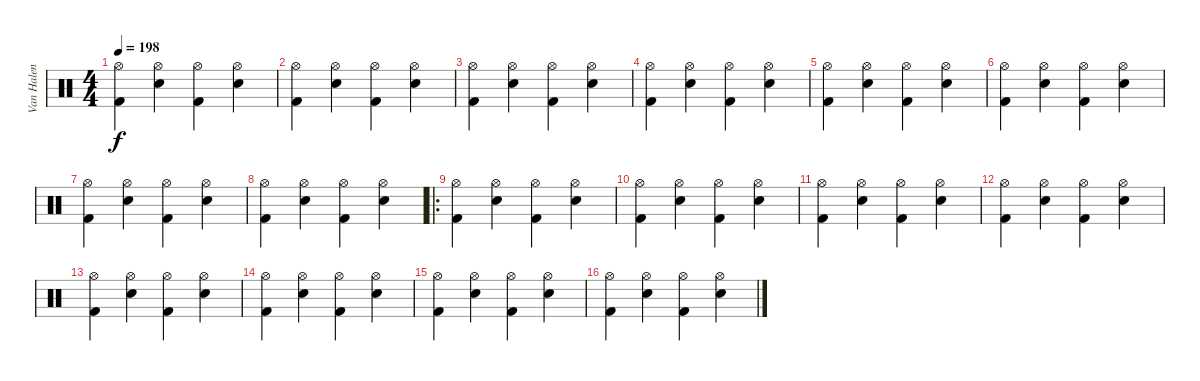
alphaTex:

\track ("Van Halen" "Van Halen") {instrument percussion}
\staff {score}
\articulation defaults
\ts (4 4)
\tempo 198
\clef neutral
\ks c
("Kick (hit) 2" "Hi-Hat (open)").4{dy f} ("Snare (hit) 2" "Hi-Hat (open)").4 ("Kick (hit) 2" "Hi-Hat (open)").4 ("Snare (hit) 2" "Hi-Hat (open)").4 |
("Kick (hit) 2" "Hi-Hat (open)").4 ("Snare (hit) 2" "Hi-Hat (open)").4 ("Kick (hit) 2" "Hi-Hat (open)").4 ("Snare (hit) 2" "Hi-Hat (open)").4 |
("Kick (hit) 2" "Hi-Hat (open)").4 ("Snare (hit) 2" "Hi-Hat (open)").4 ("Kick (hit) 2" "Hi-Hat (open)").4 ("Snare (hit) 2" "Hi-Hat (open)").4 |
("Kick (hit) 2" "Hi-Hat (open)").4 ("Snare (hit) 2" "Hi-Hat (open)").4 ("Kick (hit) 2" "Hi-Hat (open)").4 ("Snare (hit) 2" "Hi-Hat (open)").4 |
("Kick (hit) 2" "Hi-Hat (open)").4 ("Snare (hit) 2" "Hi-Hat (open)").4 ("Kick (hit) 2" "Hi-Hat (open)").4 ("Snare (hit) 2" "Hi-Hat (open)").4 |
("Kick (hit) 2" "Hi-Hat (open)").4 ("Snare (hit) 2" "Hi-Hat (open)").4 ("Kick (hit) 2" "Hi-Hat (open)").4 ("Snare (hit) 2" "Hi-Hat (open)").4 |
("Kick (hit) 2" "Hi-Hat (open)").4 ("Snare (hit) 2" "Hi-Hat (open)").4 ("Kick (hit) 2" "Hi-Hat (open)").4 ("Snare (hit) 2" "Hi-Hat (open)").4 |
("Kick (hit) 2" "Hi-Hat (open)").4 ("Snare (hit) 2" "Hi-Hat (open)").4 ("Kick (hit) 2" "Hi-Hat (open)").4 ("Snare (hit) 2" "Hi-Hat (open)").4 |
\ro
("Kick (hit) 2" "Hi-Hat (open)").4 ("Snare (hit) 2" "Hi-Hat (open)").4 ("Kick (hit) 2" "Hi-Hat (open)").4 ("Snare (hit) 2" "Hi-Hat (open)").4 |
("Kick (hit) 2" "Hi-Hat (open)").4 ("Snare (hit) 2" "Hi-Hat (open)").4 ("Kick (hit) 2" "Hi-Hat (open)").4 ("Snare (hit) 2" "Hi-Hat (open)").4 |
("Kick (hit) 2" "Hi-Hat (open)").4 ("Snare (hit) 2" "Hi-Hat (open)").4 ("Kick (hit) 2" "Hi-Hat (open)").4 ("Snare (hit) 2" "Hi-Hat (open)").4 |
("Kick (hit) 2" "Hi-Hat (open)").4 ("Snare (hit) 2" "Hi-Hat (open)").4 ("Kick (hit) 2" "Hi-Hat (open)").4 ("Snare (hit) 2" "Hi-Hat (open)").4 |
("Kick (hit) 2" "Hi-Hat (open)").4 ("Snare (hit) 2" "Hi-Hat (open)").4 ("Kick (hit) 2" "Hi-Hat (open)").4 ("Snare (hit) 2" "Hi-Hat (open)").4 |
("Kick (hit) 2" "Hi-Hat (open)").4 ("Snare (hit) 2" "Hi-Hat (open)").4 ("Kick (hit) 2" "Hi-Hat (open)").4 ("Snare (hit) 2" "Hi-Hat (open)").4 |
("Kick (hit) 2" "Hi-Hat (open)").4 ("Snare (hit) 2" "Hi-Hat (open)").4 ("Kick (hit) 2" "Hi-Hat (open)").4 ("Snare (hit) 2" "Hi-Hat (open)").4 |
("Kick (hit) 2" "Hi-Hat (open)").4 ("Snare (hit) 2" "Hi-Hat (open)").4 ("Kick (hit) 2" "Hi-Hat (open)").4 ("Snare (hit) 2" "Hi-Hat (open)").4
